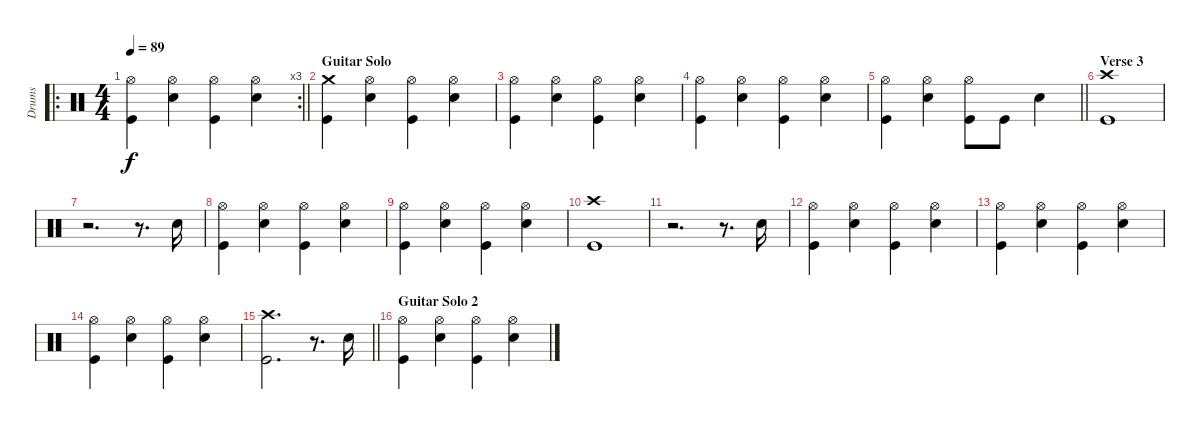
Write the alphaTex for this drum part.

\track ("Drums" "Drums") {instrument percussion}
\staff {score}
\articulation defaults
\ro
\rc 3
\ts (4 4)
\tempo 89
\clef neutral
\barLineRight lightlight
\ks c
("Hi-Hat (open)" "Kick (hit)").4{dy f} ("Hi-Hat (open)" "Snare (hit) 2").4 ("Hi-Hat (open)" "Kick (hit)").4 ("Hi-Hat (open)" "Snare (hit) 2").4 |
\section ("" "Guitar Solo")
("Crash medium (hit)" "Kick (hit)").4 ("Hi-Hat (open)" "Snare (hit) 2").4 ("Hi-Hat (open)" "Kick (hit)").4 ("Hi-Hat (open)" "Snare (hit) 2").4 |
("Hi-Hat (open)" "Kick (hit)").4 ("Hi-Hat (open)" "Snare (hit) 2").4 ("Hi-Hat (open)" "Kick (hit)").4 ("Hi-Hat (open)" "Snare (hit) 2").4 |
("Hi-Hat (open)" "Kick (hit)").4 ("Hi-Hat (open)" "Snare (hit) 2").4 ("Hi-Hat (open)" "Kick (hit)").4 ("Hi-Hat (open)" "Snare (hit) 2").4 |
\barLineRight lightlight
("Hi-Hat (open)" "Kick (hit)").4 ("Hi-Hat (open)" "Snare (hit) 2").4 ("Hi-Hat (open)" "Kick (hit)").8 "Kick (hit)".8 "Snare (hit) 2".4 |
\section ("" "Verse 3")
("Crash high (hit)" "Kick (hit)").1 |
r.2{d} r.8{d} "Snare (hit) 2".16 |
("Hi-Hat (open)" "Kick (hit)").4 ("Hi-Hat (open)" "Snare (hit) 2").4 ("Hi-Hat (open)" "Kick (hit)").4 ("Hi-Hat (open)" "Snare (hit) 2").4 |
("Hi-Hat (open)" "Kick (hit)").4 ("Hi-Hat (open)" "Snare (hit) 2").4 ("Hi-Hat (open)" "Kick (hit)").4 ("Hi-Hat (open)" "Snare (hit) 2").4 |
("Crash high (hit)" "Kick (hit)").1 |
r.2{d} r.8{d} "Snare (hit) 2".16 |
("Hi-Hat (open)" "Kick (hit)").4 ("Hi-Hat (open)" "Snare (hit) 2").4 ("Hi-Hat (open)" "Kick (hit)").4 ("Hi-Hat (open)" "Snare (hit) 2").4 |
("Hi-Hat (open)" "Kick (hit)").4 ("Hi-Hat (open)" "Snare (hit) 2").4 ("Hi-Hat (open)" "Kick (hit)").4 ("Hi-Hat (open)" "Snare (hit) 2").4 |
("Hi-Hat (open)" "Kick (hit)").4 ("Hi-Hat (open)" "Snare (hit) 2").4 ("Hi-Hat (open)" "Kick (hit)").4 ("Hi-Hat (open)" "Snare (hit) 2").4 |
\barLineRight lightlight
("Crash high (hit)" "Kick (hit)").2{d} r.8{d} "Snare (hit) 2".16 |
\section ("" "Guitar Solo 2")
("Hi-Hat (open)" "Kick (hit)").4 ("Hi-Hat (open)" "Snare (hit) 2").4 ("Hi-Hat (open)" "Kick (hit)").4 ("Hi-Hat (open)" "Snare (hit) 2").4
